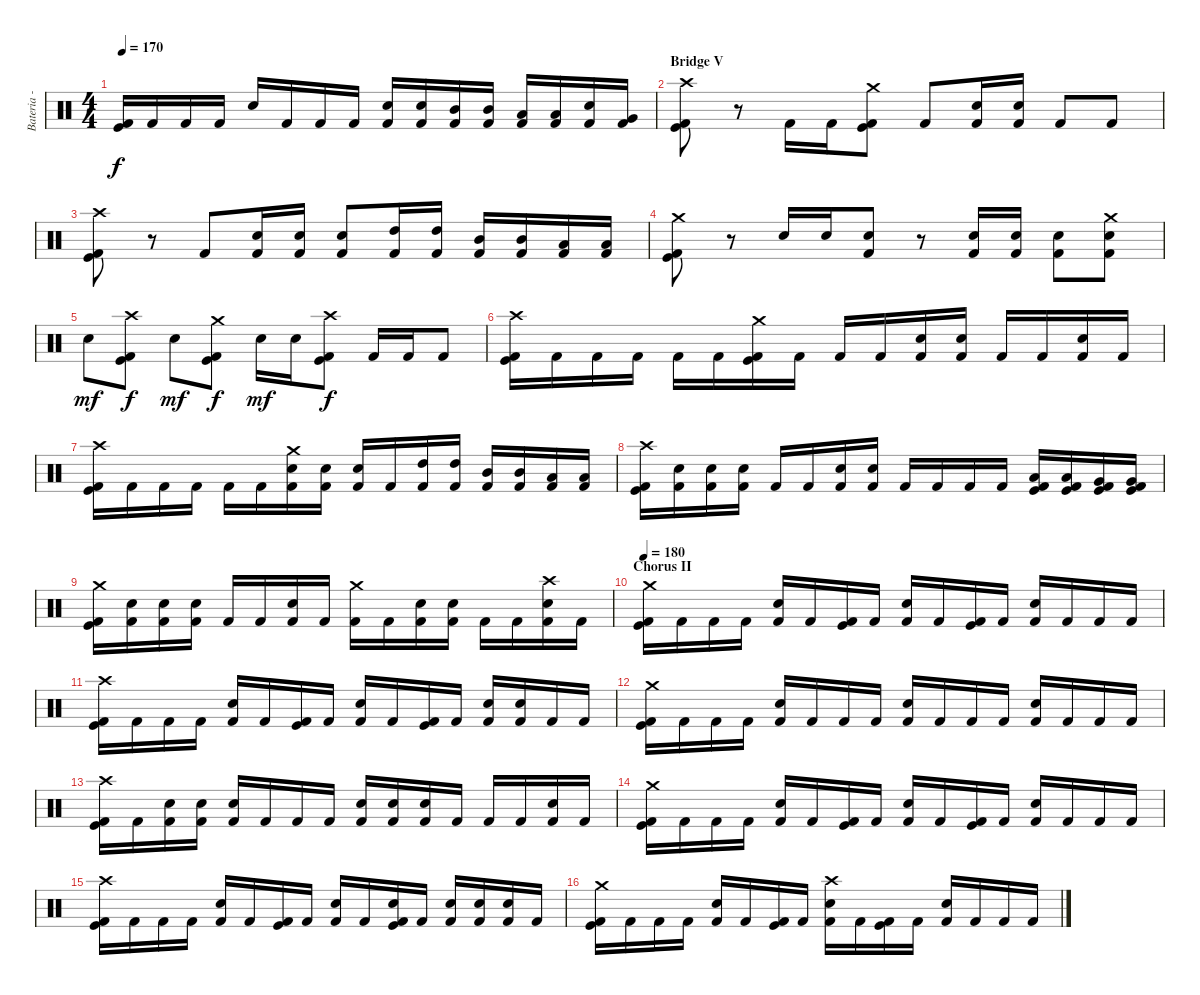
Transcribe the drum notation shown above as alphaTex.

\track ("Bateria - Drums" "Bateria - ") {instrument percussion}
\staff {score}
\articulation defaults
\ts (4 4)
\tempo 170
\clef neutral
\ks c
("Kick (hit)" "Kick (hit) 2").16{dy f} "Kick (hit) 2".16 "Kick (hit) 2".16 "Kick (hit) 2".16 "Snare (hit) 2".16 "Kick (hit) 2".16 "Kick (hit) 2".16 "Kick (hit) 2".16 ("Electric Snare (hit)" "Kick (hit) 2").16 ("Electric Snare (hit)" "Kick (hit) 2").16 ("Mid Tom (hit)" "Kick (hit) 2").16 ("Mid Tom (hit)" "Kick (hit) 2").16 ("Low Tom (hit)" "Kick (hit) 2").16 ("Low Tom (hit)" "Kick (hit) 2").16 ("Electric Snare (hit)" "Kick (hit) 2").16 ("Very Low Tom (hit)" "Kick (hit) 2").16 |
\section ("" "Bridge V")
("Crash high (hit)" "Kick (hit)" "Kick (hit) 2").8 r.8 "Kick (hit) 2".16 "Kick (hit) 2".16 ("Crash medium (hit)" "Kick (hit)" "Kick (hit) 2").8 "Kick (hit) 2".8 ("Electric Snare (hit)" "Kick (hit) 2").16 ("Electric Snare (hit)" "Kick (hit) 2").16 "Kick (hit) 2".8 "Kick (hit) 2".8 |
("Crash high (hit)" "Kick (hit)" "Kick (hit) 2").8 r.8 "Kick (hit) 2".8 ("Electric Snare (hit)" "Kick (hit) 2").16 ("Electric Snare (hit)" "Kick (hit) 2").16 ("Electric Snare (hit)" "Kick (hit) 2").8 ("High Tom (hit)" "Kick (hit) 2").16 ("High Tom (hit)" "Kick (hit) 2").16 ("Mid Tom (hit)" "Kick (hit) 2").16 ("Mid Tom (hit)" "Kick (hit) 2").16 ("Low Tom (hit)" "Kick (hit) 2").16 ("Low Tom (hit)" "Kick (hit) 2").16 |
("Crash medium (hit)" "Kick (hit)" "Kick (hit) 2").8 r.8 "Electric Snare (hit)".16 "Electric Snare (hit)".16 ("Electric Snare (hit)" "Kick (hit) 2").8 r.8 ("Snare (hit) 2" "Kick (hit) 2").16 ("Snare (hit) 2" "Kick (hit) 2").16 ("Snare (hit) 2" "Kick (hit) 2").8 ("Crash medium (hit)" "Snare (hit) 2" "Kick (hit) 2").8 |
"Snare (hit) 2".8{dy mf} ("Crash high (hit)" "Kick (hit)" "Kick (hit) 2").8{dy f} "Snare (hit) 2".8{dy mf} ("Crash medium (hit)" "Kick (hit)" "Kick (hit) 2").8{dy f} "Snare (hit) 2".16{dy mf} "Snare (hit) 2".16 ("Crash high (hit)" "Kick (hit)" "Kick (hit) 2").8{dy f} "Kick (hit) 2".16 "Kick (hit) 2".16 "Kick (hit) 2".8 |
("Crash high (hit)" "Kick (hit)" "Kick (hit) 2").16 "Kick (hit) 2".16 "Kick (hit) 2".16 "Kick (hit) 2".16 "Kick (hit) 2".16 "Kick (hit) 2".16 ("Crash medium (hit)" "Kick (hit)" "Kick (hit) 2").16 "Kick (hit) 2".16 "Kick (hit) 2".16 "Kick (hit) 2".16 ("Electric Snare (hit)" "Kick (hit) 2").16 ("Electric Snare (hit)" "Kick (hit) 2").16 "Kick (hit) 2".16 "Kick (hit) 2".16 ("Electric Snare (hit)" "Kick (hit) 2").16 "Kick (hit) 2".16 |
("Crash high (hit)" "Kick (hit)" "Kick (hit) 2").16 "Kick (hit) 2".16 "Kick (hit) 2".16 "Kick (hit) 2".16 "Kick (hit) 2".16 "Kick (hit) 2".16 ("Crash medium (hit)" "Electric Snare (hit)" "Kick (hit) 2").16 ("Electric Snare (hit)" "Kick (hit) 2").16 ("Electric Snare (hit)" "Kick (hit) 2").16 "Kick (hit) 2".16 ("High Tom (hit)" "Kick (hit) 2").16 ("High Tom (hit)" "Kick (hit) 2").16 ("Mid Tom (hit)" "Kick (hit) 2").16 ("Mid Tom (hit)" "Kick (hit) 2").16 ("Low Tom (hit)" "Kick (hit) 2").16 ("Low Tom (hit)" "Kick (hit) 2").16 |
("Crash high (hit)" "Kick (hit)" "Kick (hit) 2").16 ("Snare (hit) 2" "Kick (hit) 2").16 ("Snare (hit) 2" "Kick (hit) 2").16 ("Snare (hit) 2" "Kick (hit) 2").16 "Kick (hit) 2".16 "Kick (hit) 2".16 ("Electric Snare (hit)" "Kick (hit) 2").16 ("Electric Snare (hit)" "Kick (hit) 2").16 "Kick (hit) 2".16 "Kick (hit) 2".16 "Kick (hit) 2".16 "Kick (hit) 2".16 ("Low Tom (hit)" "Kick (hit)" "Kick (hit) 2").16 ("Low Tom (hit)" "Kick (hit)" "Kick (hit) 2").16 ("Very Low Tom (hit)" "Kick (hit)" "Kick (hit) 2").16 ("Very Low Tom (hit)" "Kick (hit)" "Kick (hit) 2").16 |
("Crash medium (hit)" "Kick (hit)" "Kick (hit) 2").16 ("Snare (hit) 2" "Kick (hit) 2").16 ("Snare (hit) 2" "Kick (hit) 2").16 ("Snare (hit) 2" "Kick (hit) 2").16 "Kick (hit) 2".16 "Kick (hit) 2".16 ("Electric Snare (hit)" "Kick (hit) 2").16 "Kick (hit) 2".16 ("Crash medium (hit)" "Kick (hit) 2").16 "Kick (hit) 2".16 ("Electric Snare (hit)" "Kick (hit) 2").16 ("Electric Snare (hit)" "Kick (hit) 2").16 "Kick (hit) 2".16 "Kick (hit) 2".16 ("Crash high (hit)" "Snare (hit) 2" "Kick (hit) 2").16 "Kick (hit) 2".16 |
\section ("" "Chorus II")
\tempo 180
("Crash medium (hit)" "Kick (hit)" "Kick (hit) 2").16 "Kick (hit) 2".16 "Kick (hit) 2".16 "Kick (hit) 2".16 ("Snare (hit) 2" "Kick (hit) 2").16 "Kick (hit) 2".16 ("Kick (hit)" "Kick (hit) 2").16 "Kick (hit) 2".16 ("Snare (hit) 2" "Kick (hit) 2").16 "Kick (hit) 2".16 ("Kick (hit)" "Kick (hit) 2").16 "Kick (hit) 2".16 ("Snare (hit) 2" "Kick (hit) 2").16 "Kick (hit) 2".16 "Kick (hit) 2".16 "Kick (hit) 2".16 |
("Crash high (hit)" "Kick (hit)" "Kick (hit) 2").16 "Kick (hit) 2".16 "Kick (hit) 2".16 "Kick (hit) 2".16 ("Snare (hit) 2" "Kick (hit) 2").16 "Kick (hit) 2".16 ("Kick (hit)" "Kick (hit) 2").16 "Kick (hit) 2".16 ("Snare (hit) 2" "Kick (hit) 2").16 "Kick (hit) 2".16 ("Kick (hit)" "Kick (hit) 2").16 "Kick (hit) 2".16 ("Snare (hit) 2" "Kick (hit) 2").16 ("Snare (hit) 2" "Kick (hit) 2").16 "Kick (hit) 2".16 "Kick (hit) 2".16 |
("Crash medium (hit)" "Kick (hit)" "Kick (hit) 2").16 "Kick (hit) 2".16 "Kick (hit) 2".16 "Kick (hit) 2".16 ("Snare (hit) 2" "Kick (hit) 2").16 "Kick (hit) 2".16 "Kick (hit) 2".16 "Kick (hit) 2".16 ("Snare (hit) 2" "Kick (hit) 2").16 "Kick (hit) 2".16 "Kick (hit) 2".16 "Kick (hit) 2".16 ("Snare (hit) 2" "Kick (hit) 2").16 "Kick (hit) 2".16 "Kick (hit) 2".16 "Kick (hit) 2".16 |
("Crash high (hit)" "Kick (hit)" "Kick (hit) 2").16 "Kick (hit) 2".16 ("Electric Snare (hit)" "Kick (hit) 2").16 ("Electric Snare (hit)" "Kick (hit) 2").16 ("Snare (hit) 2" "Kick (hit) 2").16 "Kick (hit) 2".16 "Kick (hit) 2".16 "Kick (hit) 2".16 ("Electric Snare (hit)" "Kick (hit) 2").16 ("Electric Snare (hit)" "Kick (hit) 2").16 ("Electric Snare (hit)" "Kick (hit) 2").16 "Kick (hit) 2".16 "Kick (hit) 2".16 "Kick (hit) 2".16 ("Snare (hit) 2" "Kick (hit) 2").16 "Kick (hit) 2".16 |
("Crash medium (hit)" "Kick (hit)" "Kick (hit) 2").16 "Kick (hit) 2".16 "Kick (hit) 2".16 "Kick (hit) 2".16 ("Snare (hit) 2" "Kick (hit) 2").16 "Kick (hit) 2".16 ("Kick (hit)" "Kick (hit) 2").16 "Kick (hit) 2".16 ("Snare (hit) 2" "Kick (hit) 2").16 "Kick (hit) 2".16 ("Kick (hit)" "Kick (hit) 2").16 "Kick (hit) 2".16 ("Snare (hit) 2" "Kick (hit) 2").16 "Kick (hit) 2".16 "Kick (hit) 2".16 "Kick (hit) 2".16 |
("Crash high (hit)" "Kick (hit)" "Kick (hit) 2").16 "Kick (hit) 2".16 "Kick (hit) 2".16 "Kick (hit) 2".16 ("Snare (hit) 2" "Kick (hit) 2").16 "Kick (hit) 2".16 ("Kick (hit)" "Kick (hit) 2").16 "Kick (hit) 2".16 ("Snare (hit) 2" "Kick (hit) 2").16 "Kick (hit) 2".16 ("Snare (hit) 2" "Kick (hit)" "Kick (hit) 2").16 "Kick (hit) 2".16 ("Snare (hit) 2" "Kick (hit) 2").16 ("Snare (hit) 2" "Kick (hit) 2").16 ("Snare (hit) 2" "Kick (hit) 2").16 "Kick (hit) 2".16 |
("Crash medium (hit)" "Kick (hit)" "Kick (hit) 2").16 "Kick (hit) 2".16 "Kick (hit) 2".16 "Kick (hit) 2".16 ("Snare (hit) 2" "Kick (hit) 2").16 "Kick (hit) 2".16 ("Kick (hit)" "Kick (hit) 2").16 "Kick (hit) 2".16 ("Crash high (hit)" "Snare (hit) 2" "Kick (hit) 2").16 "Kick (hit) 2".16 ("Kick (hit)" "Kick (hit) 2").16 "Kick (hit) 2".16 ("Snare (hit) 2" "Kick (hit) 2").16 "Kick (hit) 2".16 "Kick (hit) 2".16 "Kick (hit) 2".16
